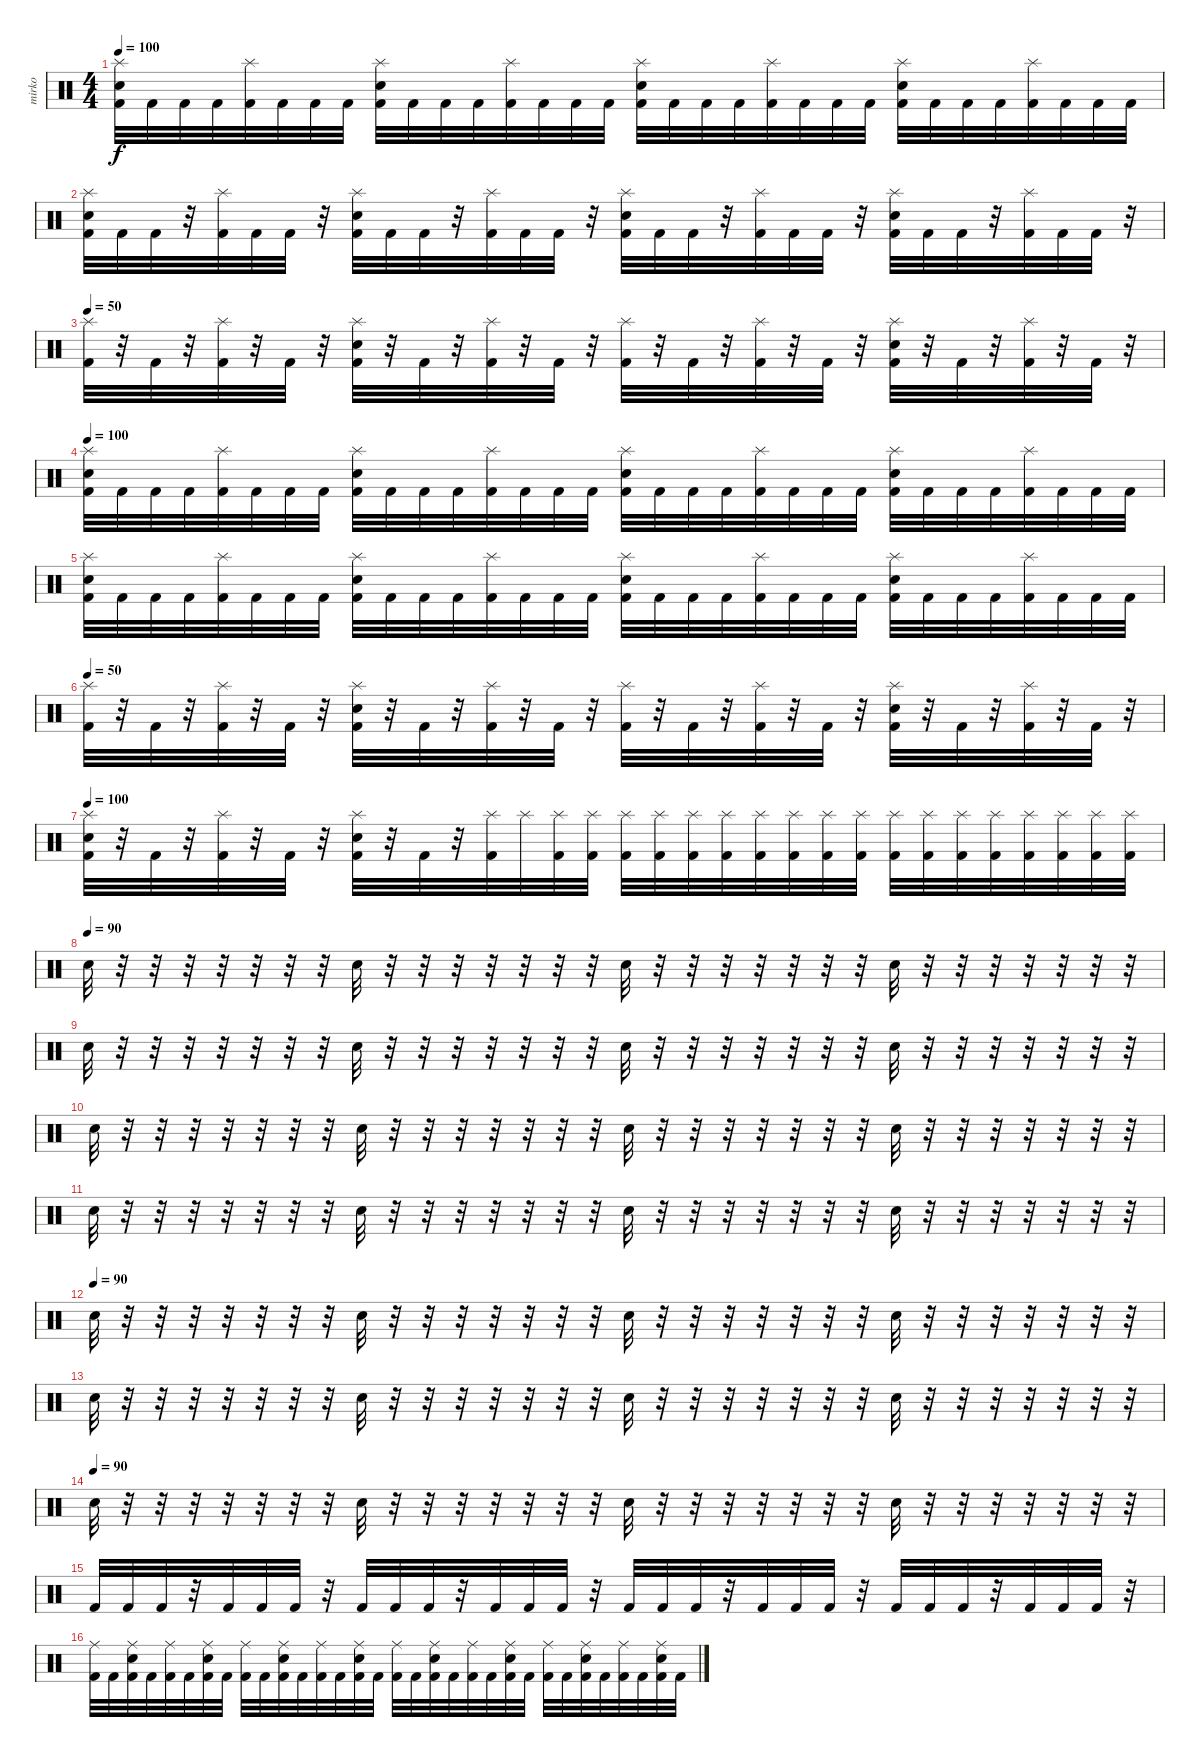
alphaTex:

\track ("mirko" "mirko") {instrument percussion}
\staff {score}
\articulation defaults
\ts (4 4)
\tempo 100
\clef neutral
\ks c
("Splash (hit)" "Electric Snare (hit)" "Kick (hit) 2").32{dy f} "Kick (hit) 2".32 "Kick (hit) 2".32 "Kick (hit) 2".32 ("Splash (hit)" "Kick (hit) 2").32 "Kick (hit) 2".32 "Kick (hit) 2".32 "Kick (hit) 2".32 ("Splash (hit)" "Electric Snare (hit)" "Kick (hit) 2").32 "Kick (hit) 2".32 "Kick (hit) 2".32 "Kick (hit) 2".32 ("Splash (hit)" "Kick (hit) 2").32 "Kick (hit) 2".32 "Kick (hit) 2".32 "Kick (hit) 2".32 ("Splash (hit)" "Electric Snare (hit)" "Kick (hit) 2").32 "Kick (hit) 2".32 "Kick (hit) 2".32 "Kick (hit) 2".32 ("Splash (hit)" "Kick (hit) 2").32 "Kick (hit) 2".32 "Kick (hit) 2".32 "Kick (hit) 2".32 ("Splash (hit)" "Electric Snare (hit)" "Kick (hit) 2").32 "Kick (hit) 2".32 "Kick (hit) 2".32 "Kick (hit) 2".32 ("Splash (hit)" "Kick (hit) 2").32 "Kick (hit) 2".32 "Kick (hit) 2".32 "Kick (hit) 2".32 |
("Splash (hit)" "Electric Snare (hit)" "Kick (hit) 2").32 "Kick (hit) 2".32 "Kick (hit) 2".32 r.32 ("Splash (hit)" "Kick (hit) 2").32 "Kick (hit) 2".32 "Kick (hit) 2".32 r.32 ("Splash (hit)" "Electric Snare (hit)" "Kick (hit) 2").32 "Kick (hit) 2".32 "Kick (hit) 2".32 r.32 ("Splash (hit)" "Kick (hit) 2").32 "Kick (hit) 2".32 "Kick (hit) 2".32 r.32 ("Splash (hit)" "Electric Snare (hit)" "Kick (hit) 2").32 "Kick (hit) 2".32 "Kick (hit) 2".32 r.32 ("Splash (hit)" "Kick (hit) 2").32 "Kick (hit) 2".32 "Kick (hit) 2".32 r.32 ("Splash (hit)" "Electric Snare (hit)" "Kick (hit) 2").32 "Kick (hit) 2".32 "Kick (hit) 2".32 r.32 ("Splash (hit)" "Kick (hit) 2").32 "Kick (hit) 2".32 "Kick (hit) 2".32 r.32 |
\tempo 50
("Splash (hit)" "Kick (hit) 2").32 r.32 "Kick (hit) 2".32 r.32 ("Splash (hit)" "Kick (hit) 2").32 r.32 "Kick (hit) 2".32 r.32 ("Splash (hit)" "Electric Snare (hit)" "Kick (hit) 2").32 r.32 "Kick (hit) 2".32 r.32 ("Splash (hit)" "Kick (hit) 2").32 r.32 "Kick (hit) 2".32 r.32 ("Splash (hit)" "Kick (hit) 2").32 r.32 "Kick (hit) 2".32 r.32 ("Splash (hit)" "Kick (hit) 2").32 r.32 "Kick (hit) 2".32 r.32 ("Splash (hit)" "Electric Snare (hit)" "Kick (hit) 2").32 r.32 "Kick (hit) 2".32 r.32 ("Splash (hit)" "Kick (hit) 2").32 r.32 "Kick (hit) 2".32 r.32 |
\tempo 100
("Splash (hit)" "Electric Snare (hit)" "Kick (hit) 2").32 "Kick (hit) 2".32 "Kick (hit) 2".32 "Kick (hit) 2".32 ("Splash (hit)" "Kick (hit) 2").32 "Kick (hit) 2".32 "Kick (hit) 2".32 "Kick (hit) 2".32 ("Splash (hit)" "Electric Snare (hit)" "Kick (hit) 2").32 "Kick (hit) 2".32 "Kick (hit) 2".32 "Kick (hit) 2".32 ("Splash (hit)" "Kick (hit) 2").32 "Kick (hit) 2".32 "Kick (hit) 2".32 "Kick (hit) 2".32 ("Splash (hit)" "Electric Snare (hit)" "Kick (hit) 2").32 "Kick (hit) 2".32 "Kick (hit) 2".32 "Kick (hit) 2".32 ("Splash (hit)" "Kick (hit) 2").32 "Kick (hit) 2".32 "Kick (hit) 2".32 "Kick (hit) 2".32 ("Splash (hit)" "Electric Snare (hit)" "Kick (hit) 2").32 "Kick (hit) 2".32 "Kick (hit) 2".32 "Kick (hit) 2".32 ("Splash (hit)" "Kick (hit) 2").32 "Kick (hit) 2".32 "Kick (hit) 2".32 "Kick (hit) 2".32 |
("Splash (hit)" "Electric Snare (hit)" "Kick (hit) 2").32 "Kick (hit) 2".32 "Kick (hit) 2".32 "Kick (hit) 2".32 ("Splash (hit)" "Kick (hit) 2").32 "Kick (hit) 2".32 "Kick (hit) 2".32 "Kick (hit) 2".32 ("Splash (hit)" "Electric Snare (hit)" "Kick (hit) 2").32 "Kick (hit) 2".32 "Kick (hit) 2".32 "Kick (hit) 2".32 ("Splash (hit)" "Kick (hit) 2").32 "Kick (hit) 2".32 "Kick (hit) 2".32 "Kick (hit) 2".32 ("Splash (hit)" "Electric Snare (hit)" "Kick (hit) 2").32 "Kick (hit) 2".32 "Kick (hit) 2".32 "Kick (hit) 2".32 ("Splash (hit)" "Kick (hit) 2").32 "Kick (hit) 2".32 "Kick (hit) 2".32 "Kick (hit) 2".32 ("Splash (hit)" "Electric Snare (hit)" "Kick (hit) 2").32 "Kick (hit) 2".32 "Kick (hit) 2".32 "Kick (hit) 2".32 ("Splash (hit)" "Kick (hit) 2").32 "Kick (hit) 2".32 "Kick (hit) 2".32 "Kick (hit) 2".32 |
\tempo 50
("Splash (hit)" "Kick (hit) 2").32 r.32 "Kick (hit) 2".32 r.32 ("Splash (hit)" "Kick (hit) 2").32 r.32 "Kick (hit) 2".32 r.32 ("Splash (hit)" "Electric Snare (hit)" "Kick (hit) 2").32 r.32 "Kick (hit) 2".32 r.32 ("Splash (hit)" "Kick (hit) 2").32 r.32 "Kick (hit) 2".32 r.32 ("Splash (hit)" "Kick (hit) 2").32 r.32 "Kick (hit) 2".32 r.32 ("Splash (hit)" "Kick (hit) 2").32 r.32 "Kick (hit) 2".32 r.32 ("Splash (hit)" "Electric Snare (hit)" "Kick (hit) 2").32 r.32 "Kick (hit) 2".32 r.32 ("Splash (hit)" "Kick (hit) 2").32 r.32 "Kick (hit) 2".32 r.32 |
\tempo 100
("Splash (hit)" "Electric Snare (hit)" "Kick (hit) 2").32 r.32 "Kick (hit) 2".32 r.32 ("Splash (hit)" "Kick (hit) 2").32 r.32 "Kick (hit) 2".32 r.32 ("Splash (hit)" "Electric Snare (hit)" "Kick (hit) 2").32 r.32 "Kick (hit) 2".32 r.32 ("Splash (hit)" "Kick (hit) 2").32 "Splash (hit)".32 ("Splash (hit)" "Kick (hit) 2").32 ("Splash (hit)" "Kick (hit) 2").32 ("Splash (hit)" "Kick (hit) 2").32 ("Splash (hit)" "Kick (hit) 2").32 ("Splash (hit)" "Kick (hit) 2").32 ("Splash (hit)" "Kick (hit) 2").32 ("Splash (hit)" "Kick (hit) 2").32 ("Splash (hit)" "Kick (hit) 2").32 ("Splash (hit)" "Kick (hit) 2").32 ("Splash (hit)" "Kick (hit) 2").32 ("Splash (hit)" "Kick (hit) 2").32 ("Splash (hit)" "Kick (hit) 2").32 ("Splash (hit)" "Kick (hit) 2").32 ("Splash (hit)" "Kick (hit) 2").32 ("Splash (hit)" "Kick (hit) 2").32 ("Splash (hit)" "Kick (hit) 2").32 ("Splash (hit)" "Kick (hit) 2").32 ("Splash (hit)" "Kick (hit) 2").32 |
\tempo (90)
"Electric Snare (hit)".32 r.32 r.32 r.32 r.32 r.32 r.32 r.32 "Electric Snare (hit)".32 r.32 r.32 r.32 r.32 r.32 r.32 r.32 "Electric Snare (hit)".32 r.32 r.32 r.32 r.32 r.32 r.32 r.32 "Electric Snare (hit)".32 r.32 r.32 r.32 r.32 r.32 r.32 r.32 |
"Electric Snare (hit)".32 r.32 r.32 r.32 r.32 r.32 r.32 r.32 "Electric Snare (hit)".32 r.32 r.32 r.32 r.32 r.32 r.32 r.32 "Electric Snare (hit)".32 r.32 r.32 r.32 r.32 r.32 r.32 r.32 "Electric Snare (hit)".32 r.32 r.32 r.32 r.32 r.32 r.32 r.32 |
"Electric Snare (hit)".32 r.32 r.32 r.32 r.32 r.32 r.32 r.32 "Electric Snare (hit)".32 r.32 r.32 r.32 r.32 r.32 r.32 r.32 "Electric Snare (hit)".32 r.32 r.32 r.32 r.32 r.32 r.32 r.32 "Electric Snare (hit)".32 r.32 r.32 r.32 r.32 r.32 r.32 r.32 |
"Electric Snare (hit)".32 r.32 r.32 r.32 r.32 r.32 r.32 r.32 "Electric Snare (hit)".32 r.32 r.32 r.32 r.32 r.32 r.32 r.32 "Electric Snare (hit)".32 r.32 r.32 r.32 r.32 r.32 r.32 r.32 "Electric Snare (hit)".32 r.32 r.32 r.32 r.32 r.32 r.32 r.32 |
\tempo (90)
"Electric Snare (hit)".32 r.32 r.32 r.32 r.32 r.32 r.32 r.32 "Electric Snare (hit)".32 r.32 r.32 r.32 r.32 r.32 r.32 r.32 "Electric Snare (hit)".32 r.32 r.32 r.32 r.32 r.32 r.32 r.32 "Electric Snare (hit)".32 r.32 r.32 r.32 r.32 r.32 r.32 r.32 |
"Electric Snare (hit)".32 r.32 r.32 r.32 r.32 r.32 r.32 r.32 "Electric Snare (hit)".32 r.32 r.32 r.32 r.32 r.32 r.32 r.32 "Electric Snare (hit)".32 r.32 r.32 r.32 r.32 r.32 r.32 r.32 "Electric Snare (hit)".32 r.32 r.32 r.32 r.32 r.32 r.32 r.32 |
\tempo (90)
"Electric Snare (hit)".32 r.32 r.32 r.32 r.32 r.32 r.32 r.32 "Electric Snare (hit)".32 r.32 r.32 r.32 r.32 r.32 r.32 r.32 "Electric Snare (hit)".32 r.32 r.32 r.32 r.32 r.32 r.32 r.32 "Electric Snare (hit)".32 r.32 r.32 r.32 r.32 r.32 r.32 r.32 |
"Kick (hit) 2".32 "Kick (hit) 2".32 "Kick (hit) 2".32 r.32 "Kick (hit) 2".32 "Kick (hit) 2".32 "Kick (hit) 2".32 r.32 "Kick (hit) 2".32 "Kick (hit) 2".32 "Kick (hit) 2".32 r.32 "Kick (hit) 2".32 "Kick (hit) 2".32 "Kick (hit) 2".32 r.32 "Kick (hit) 2".32 "Kick (hit) 2".32 "Kick (hit) 2".32 r.32 "Kick (hit) 2".32 "Kick (hit) 2".32 "Kick (hit) 2".32 r.32 "Kick (hit) 2".32 "Kick (hit) 2".32 "Kick (hit) 2".32 r.32 "Kick (hit) 2".32 "Kick (hit) 2".32 "Kick (hit) 2".32 r.32 |
("Ride (middle)" "Kick (hit) 2").32 "Kick (hit) 2".32 ("Ride (middle)" "Electric Snare (hit)" "Kick (hit) 2").32 "Kick (hit) 2".32 ("Ride (middle)" "Kick (hit) 2").32 "Kick (hit) 2".32 ("Ride (middle)" "Electric Snare (hit)" "Kick (hit) 2").32 "Kick (hit) 2".32 ("Ride (middle)" "Kick (hit) 2").32 "Kick (hit) 2".32 ("Ride (middle)" "Electric Snare (hit)" "Kick (hit) 2").32 "Kick (hit) 2".32 ("Ride (middle)" "Kick (hit) 2").32 "Kick (hit) 2".32 ("Ride (middle)" "Electric Snare (hit)" "Kick (hit) 2").32 "Kick (hit) 2".32 ("Ride (middle)" "Kick (hit) 2").32 "Kick (hit) 2".32 ("Ride (middle)" "Electric Snare (hit)" "Kick (hit) 2").32 "Kick (hit) 2".32 ("Ride (middle)" "Kick (hit) 2").32 "Kick (hit) 2".32 ("Ride (middle)" "Electric Snare (hit)" "Kick (hit) 2").32 "Kick (hit) 2".32 ("Ride (middle)" "Kick (hit) 2").32 "Kick (hit) 2".32 ("Ride (middle)" "Electric Snare (hit)" "Kick (hit) 2").32 "Kick (hit) 2".32 ("Ride (middle)" "Kick (hit) 2").32 "Kick (hit) 2".32 ("Ride (middle)" "Electric Snare (hit)" "Kick (hit) 2").32 "Kick (hit) 2".32
